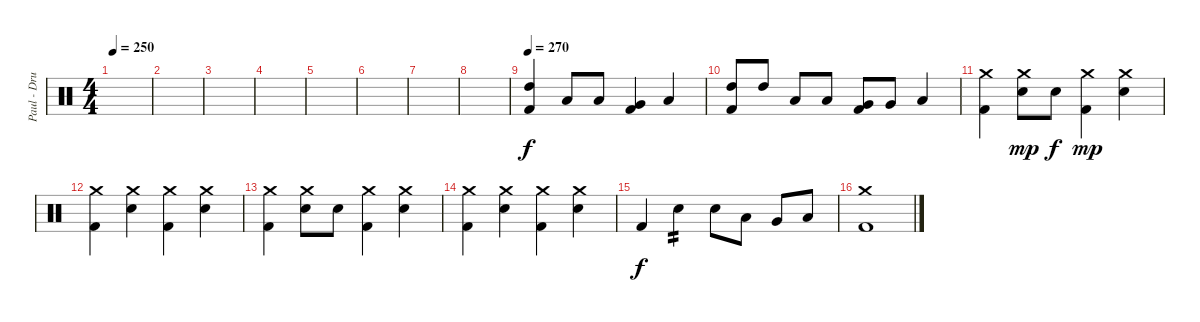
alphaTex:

\track ("Paul - Drums" "Paul - Dru") {instrument percussion}
\staff {score}
\articulation defaults
\ts (4 4)
\tempo 250
\clef neutral
\ks c
|
|
|
|
|
|
|
|
\tempo 270
("High Tom (hit)" "Kick (hit) 2").4 "Low Tom (hit)".8 "Low Tom (hit)".8 ("Very Low Tom (hit)" "Kick (hit) 2").4 "Low Floor Tom (hit)".4 |
("High Tom (hit)" "Kick (hit) 2").8 "High Tom (hit)".8 "Low Tom (hit)".8 "Low Tom (hit)".8 ("Very Low Tom (hit)" "Kick (hit) 2").8 "Very Low Tom (hit)".8 "Low Floor Tom (hit)".4 |
("Crash medium (hit)" "Kick (hit) 2").4 ("Crash medium (hit)" "Electric Snare (hit)").8{dy mp} "Electric Snare (hit)".8{dy f} ("Crash medium (hit)" "Kick (hit) 2").4{dy mp} ("Crash medium (hit)" "Electric Snare (hit)").4 |
("Crash medium (hit)" "Kick (hit) 2").4 ("Crash medium (hit)" "Electric Snare (hit)").4 ("Crash medium (hit)" "Kick (hit) 2").4 ("Crash medium (hit)" "Electric Snare (hit)").4 |
("Crash medium (hit)" "Kick (hit) 2").4 ("Crash medium (hit)" "Electric Snare (hit)").8 "Electric Snare (hit)".8 ("Crash medium (hit)" "Kick (hit) 2").4 ("Crash medium (hit)" "Electric Snare (hit)").4 |
("Crash medium (hit)" "Kick (hit) 2").4 ("Crash medium (hit)" "Electric Snare (hit)").4 ("Crash medium (hit)" "Kick (hit) 2").4 ("Crash medium (hit)" "Electric Snare (hit)").4 |
"Kick (hit) 2".4{dy f} "Electric Snare (hit)".4{tp 2} "Electric Snare (hit)".8 "Low Tom (hit)".8 "Very Low Tom (hit)".8 "Low Floor Tom (hit)".8 |
("Crash medium (hit)" "Kick (hit) 2").1
